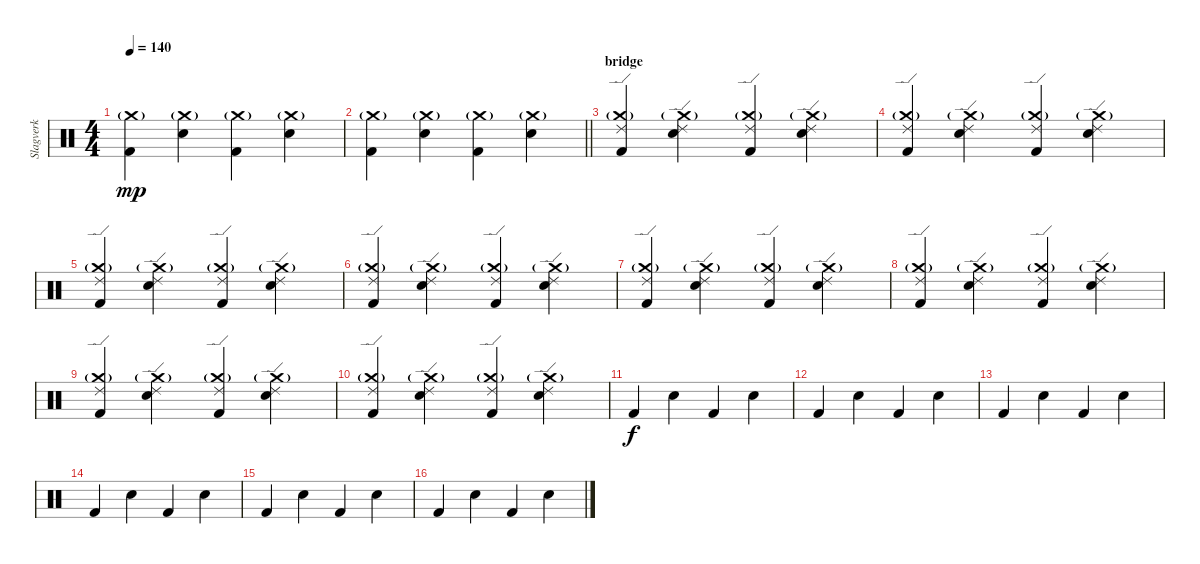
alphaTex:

\track ("Slagverk" "Slagverk") {instrument percussion}
\staff {score}
\articulation defaults
\ts (4 4)
\tempo 140
\clef neutral
\ks c
("Kick (hit) 2" "Crash medium (hit)"{g}).4{dy mp} ("Snare (hit) 2" "Crash medium (hit)"{g}).4 ("Kick (hit) 2" "Crash medium (hit)"{g}).4 ("Snare (hit) 2" "Crash medium (hit)"{g}).4 |
\barLineRight lightlight
("Kick (hit) 2" "Crash medium (hit)"{g}).4 ("Snare (hit) 2" "Crash medium (hit)"{g}).4 ("Kick (hit) 2" "Crash medium (hit)"{g}).4 ("Snare (hit) 2" "Crash medium (hit)"{g}).4 |
\section ("" "bridge")
("Kick (hit) 2" "Crash medium (hit)"{g} "Ride (edge) 2").4 ("Snare (hit) 2" "Crash medium (hit)"{g} "Ride (edge) 2").4 ("Kick (hit) 2" "Crash medium (hit)"{g} "Ride (edge) 2").4 ("Snare (hit) 2" "Crash medium (hit)"{g} "Ride (edge) 2").4 |
("Kick (hit) 2" "Crash medium (hit)"{g} "Ride (edge) 2").4 ("Snare (hit) 2" "Crash medium (hit)"{g} "Ride (edge) 2").4 ("Kick (hit) 2" "Crash medium (hit)"{g} "Ride (edge) 2").4 ("Snare (hit) 2" "Crash medium (hit)"{g} "Ride (edge) 2").4 |
("Kick (hit) 2" "Crash medium (hit)"{g} "Ride (edge) 2").4 ("Snare (hit) 2" "Crash medium (hit)"{g} "Ride (edge) 2").4 ("Kick (hit) 2" "Crash medium (hit)"{g} "Ride (edge) 2").4 ("Snare (hit) 2" "Crash medium (hit)"{g} "Ride (edge) 2").4 |
("Kick (hit) 2" "Crash medium (hit)"{g} "Ride (edge) 2").4 ("Snare (hit) 2" "Crash medium (hit)"{g} "Ride (edge) 2").4 ("Kick (hit) 2" "Crash medium (hit)"{g} "Ride (edge) 2").4 ("Snare (hit) 2" "Crash medium (hit)"{g} "Ride (edge) 2").4 |
("Kick (hit) 2" "Crash medium (hit)"{g} "Ride (edge) 2").4 ("Snare (hit) 2" "Crash medium (hit)"{g} "Ride (edge) 2").4 ("Kick (hit) 2" "Crash medium (hit)"{g} "Ride (edge) 2").4 ("Snare (hit) 2" "Crash medium (hit)"{g} "Ride (edge) 2").4 |
("Kick (hit) 2" "Crash medium (hit)"{g} "Ride (edge) 2").4 ("Snare (hit) 2" "Crash medium (hit)"{g} "Ride (edge) 2").4 ("Kick (hit) 2" "Crash medium (hit)"{g} "Ride (edge) 2").4 ("Snare (hit) 2" "Crash medium (hit)"{g} "Ride (edge) 2").4 |
("Kick (hit) 2" "Crash medium (hit)"{g} "Ride (edge) 2").4 ("Snare (hit) 2" "Crash medium (hit)"{g} "Ride (edge) 2").4 ("Kick (hit) 2" "Crash medium (hit)"{g} "Ride (edge) 2").4 ("Snare (hit) 2" "Crash medium (hit)"{g} "Ride (edge) 2").4 |
("Kick (hit) 2" "Crash medium (hit)"{g} "Ride (edge) 2").4 ("Snare (hit) 2" "Crash medium (hit)"{g} "Ride (edge) 2").4 ("Kick (hit) 2" "Crash medium (hit)"{g} "Ride (edge) 2").4 ("Snare (hit) 2" "Crash medium (hit)"{g} "Ride (edge) 2").4 |
"Kick (hit) 2".4{dy f} "Snare (hit) 2".4 "Kick (hit) 2".4 "Snare (hit) 2".4 |
"Kick (hit) 2".4 "Snare (hit) 2".4 "Kick (hit) 2".4 "Snare (hit) 2".4 |
"Kick (hit) 2".4 "Snare (hit) 2".4 "Kick (hit) 2".4 "Snare (hit) 2".4 |
"Kick (hit) 2".4 "Snare (hit) 2".4 "Kick (hit) 2".4 "Snare (hit) 2".4 |
"Kick (hit) 2".4 "Snare (hit) 2".4 "Kick (hit) 2".4 "Snare (hit) 2".4 |
"Kick (hit) 2".4 "Snare (hit) 2".4 "Kick (hit) 2".4 "Snare (hit) 2".4
